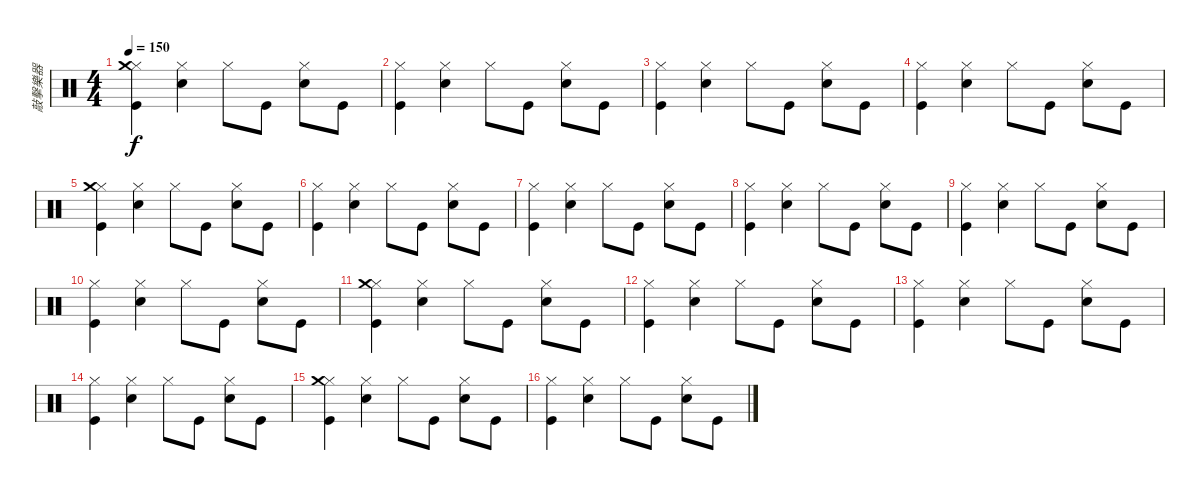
\track ("敲擊樂器" "敲擊樂器") {instrument percussion}
\staff {score}
\articulation defaults
\ts (4 4)
\tempo 150
\clef neutral
\ks c
("Kick (hit)" "Hi-Hat (closed)" "Crash medium (hit)").4{dy f} ("Snare (hit) 2" "Hi-Hat (closed)").4 "Hi-Hat (closed)".8 "Kick (hit)".8 ("Snare (hit) 2" "Hi-Hat (closed)").8 "Kick (hit)".8 |
("Kick (hit)" "Hi-Hat (closed)").4 ("Snare (hit) 2" "Hi-Hat (closed)").4 "Hi-Hat (closed)".8 "Kick (hit)".8 ("Snare (hit) 2" "Hi-Hat (closed)").8 "Kick (hit)".8 |
("Kick (hit)" "Hi-Hat (closed)").4 ("Snare (hit) 2" "Hi-Hat (closed)").4 "Hi-Hat (closed)".8 "Kick (hit)".8 ("Snare (hit) 2" "Hi-Hat (closed)").8 "Kick (hit)".8 |
("Kick (hit)" "Hi-Hat (closed)").4 ("Snare (hit) 2" "Hi-Hat (closed)").4 "Hi-Hat (closed)".8 "Kick (hit)".8 ("Snare (hit) 2" "Hi-Hat (closed)").8 "Kick (hit)".8 |
("Kick (hit)" "Hi-Hat (closed)" "Crash medium (hit)").4 ("Snare (hit) 2" "Hi-Hat (closed)").4 "Hi-Hat (closed)".8 "Kick (hit)".8 ("Snare (hit) 2" "Hi-Hat (closed)").8 "Kick (hit)".8 |
("Kick (hit)" "Hi-Hat (closed)").4 ("Snare (hit) 2" "Hi-Hat (closed)").4 "Hi-Hat (closed)".8 "Kick (hit)".8 ("Snare (hit) 2" "Hi-Hat (closed)").8 "Kick (hit)".8 |
("Kick (hit)" "Hi-Hat (closed)").4 ("Snare (hit) 2" "Hi-Hat (closed)").4 "Hi-Hat (closed)".8 "Kick (hit)".8 ("Snare (hit) 2" "Hi-Hat (closed)").8 "Kick (hit)".8 |
("Kick (hit)" "Hi-Hat (closed)").4 ("Snare (hit) 2" "Hi-Hat (closed)").4 "Hi-Hat (closed)".8 "Kick (hit)".8 ("Snare (hit) 2" "Hi-Hat (closed)").8 "Kick (hit)".8 |
("Kick (hit)" "Hi-Hat (closed)").4 ("Snare (hit) 2" "Hi-Hat (closed)").4 "Hi-Hat (closed)".8 "Kick (hit)".8 ("Snare (hit) 2" "Hi-Hat (closed)").8 "Kick (hit)".8 |
("Kick (hit)" "Hi-Hat (closed)").4 ("Snare (hit) 2" "Hi-Hat (closed)").4 "Hi-Hat (closed)".8 "Kick (hit)".8 ("Snare (hit) 2" "Hi-Hat (closed)").8 "Kick (hit)".8 |
("Kick (hit)" "Hi-Hat (closed)" "Crash medium (hit)").4 ("Snare (hit) 2" "Hi-Hat (closed)").4 "Hi-Hat (closed)".8 "Kick (hit)".8 ("Snare (hit) 2" "Hi-Hat (closed)").8 "Kick (hit)".8 |
("Kick (hit)" "Hi-Hat (closed)").4 ("Snare (hit) 2" "Hi-Hat (closed)").4 "Hi-Hat (closed)".8 "Kick (hit)".8 ("Snare (hit) 2" "Hi-Hat (closed)").8 "Kick (hit)".8 |
("Kick (hit)" "Hi-Hat (closed)").4 ("Snare (hit) 2" "Hi-Hat (closed)").4 "Hi-Hat (closed)".8 "Kick (hit)".8 ("Snare (hit) 2" "Hi-Hat (closed)").8 "Kick (hit)".8 |
("Kick (hit)" "Hi-Hat (closed)").4 ("Snare (hit) 2" "Hi-Hat (closed)").4 "Hi-Hat (closed)".8 "Kick (hit)".8 ("Snare (hit) 2" "Hi-Hat (closed)").8 "Kick (hit)".8 |
("Kick (hit)" "Hi-Hat (closed)" "Crash medium (hit)").4 ("Snare (hit) 2" "Hi-Hat (closed)").4 "Hi-Hat (closed)".8 "Kick (hit)".8 ("Snare (hit) 2" "Hi-Hat (closed)").8 "Kick (hit)".8 |
("Kick (hit)" "Hi-Hat (closed)").4 ("Snare (hit) 2" "Hi-Hat (closed)").4 "Hi-Hat (closed)".8 "Kick (hit)".8 ("Snare (hit) 2" "Hi-Hat (closed)").8 "Kick (hit)".8
